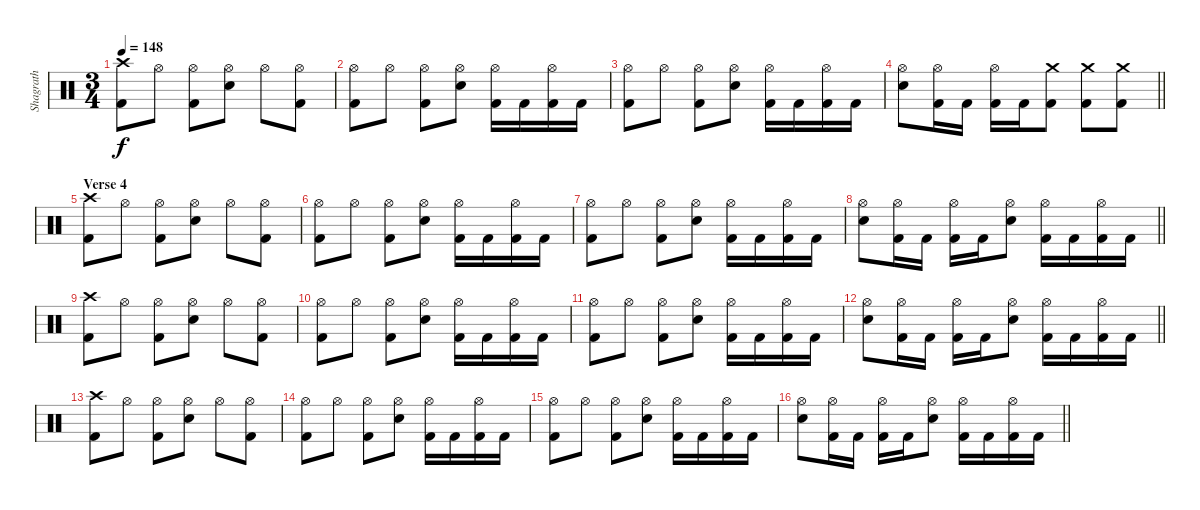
\track ("Shagrath" "Shagrath") {instrument percussion}
\staff {score}
\articulation defaults
\ts (3 4)
\tempo 148
\clef neutral
\ks c
("Crash high (hit)" "Kick (hit) 2").8{dy f} "Hi-Hat (open)".8 ("Hi-Hat (open)" "Kick (hit) 2").8 ("Hi-Hat (open)" "Electric Snare (hit)").8 "Hi-Hat (open)".8 ("Hi-Hat (open)" "Kick (hit) 2").8 |
("Hi-Hat (open)" "Kick (hit) 2").8 "Hi-Hat (open)".8 ("Hi-Hat (open)" "Kick (hit) 2").8 ("Hi-Hat (open)" "Electric Snare (hit)").8 ("Hi-Hat (open)" "Kick (hit) 2").16 "Kick (hit) 2".16 ("Hi-Hat (open)" "Kick (hit) 2").16 "Kick (hit) 2".16 |
("Hi-Hat (open)" "Kick (hit) 2").8 "Hi-Hat (open)".8 ("Hi-Hat (open)" "Kick (hit) 2").8 ("Hi-Hat (open)" "Electric Snare (hit)").8 ("Hi-Hat (open)" "Kick (hit) 2").16 "Kick (hit) 2".16 ("Hi-Hat (open)" "Kick (hit) 2").16 "Kick (hit) 2".16 |
\barLineRight lightlight
("Hi-Hat (open)" "Electric Snare (hit)").8 ("Hi-Hat (open)" "Kick (hit) 2").16 "Kick (hit) 2".16 ("Hi-Hat (open)" "Kick (hit) 2").16 "Kick (hit) 2".16 ("Crash medium (hit)" "Kick (hit) 2").8 ("Crash medium (hit)" "Kick (hit) 2").8 ("Crash medium (hit)" "Kick (hit) 2").8 |
\section ("" "Verse 4")
("Crash high (hit)" "Kick (hit) 2").8 "Hi-Hat (open)".8 ("Hi-Hat (open)" "Kick (hit) 2").8 ("Hi-Hat (open)" "Electric Snare (hit)").8 "Hi-Hat (open)".8 ("Hi-Hat (open)" "Kick (hit) 2").8 |
("Hi-Hat (open)" "Kick (hit) 2").8 "Hi-Hat (open)".8 ("Hi-Hat (open)" "Kick (hit) 2").8 ("Hi-Hat (open)" "Electric Snare (hit)").8 ("Hi-Hat (open)" "Kick (hit) 2").16 "Kick (hit) 2".16 ("Hi-Hat (open)" "Kick (hit) 2").16 "Kick (hit) 2".16 |
("Hi-Hat (open)" "Kick (hit) 2").8 "Hi-Hat (open)".8 ("Hi-Hat (open)" "Kick (hit) 2").8 ("Hi-Hat (open)" "Electric Snare (hit)").8 ("Hi-Hat (open)" "Kick (hit) 2").16 "Kick (hit) 2".16 ("Hi-Hat (open)" "Kick (hit) 2").16 "Kick (hit) 2".16 |
\barLineRight lightlight
("Hi-Hat (open)" "Electric Snare (hit)").8 ("Hi-Hat (open)" "Kick (hit) 2").16 "Kick (hit) 2".16 ("Hi-Hat (open)" "Kick (hit) 2").16 "Kick (hit) 2".16 ("Hi-Hat (open)" "Electric Snare (hit)").8 ("Hi-Hat (open)" "Kick (hit) 2").16 "Kick (hit) 2".16 ("Hi-Hat (open)" "Kick (hit) 2").16 "Kick (hit) 2".16 |
("Crash high (hit)" "Kick (hit) 2").8 "Hi-Hat (open)".8 ("Hi-Hat (open)" "Kick (hit) 2").8 ("Hi-Hat (open)" "Electric Snare (hit)").8 "Hi-Hat (open)".8 ("Hi-Hat (open)" "Kick (hit) 2").8 |
("Hi-Hat (open)" "Kick (hit) 2").8 "Hi-Hat (open)".8 ("Hi-Hat (open)" "Kick (hit) 2").8 ("Hi-Hat (open)" "Electric Snare (hit)").8 ("Hi-Hat (open)" "Kick (hit) 2").16 "Kick (hit) 2".16 ("Hi-Hat (open)" "Kick (hit) 2").16 "Kick (hit) 2".16 |
("Hi-Hat (open)" "Kick (hit) 2").8 "Hi-Hat (open)".8 ("Hi-Hat (open)" "Kick (hit) 2").8 ("Hi-Hat (open)" "Electric Snare (hit)").8 ("Hi-Hat (open)" "Kick (hit) 2").16 "Kick (hit) 2".16 ("Hi-Hat (open)" "Kick (hit) 2").16 "Kick (hit) 2".16 |
\barLineRight lightlight
("Hi-Hat (open)" "Electric Snare (hit)").8 ("Hi-Hat (open)" "Kick (hit) 2").16 "Kick (hit) 2".16 ("Hi-Hat (open)" "Kick (hit) 2").16 "Kick (hit) 2".16 ("Hi-Hat (open)" "Electric Snare (hit)").8 ("Hi-Hat (open)" "Kick (hit) 2").16 "Kick (hit) 2".16 ("Hi-Hat (open)" "Kick (hit) 2").16 "Kick (hit) 2".16 |
("Crash high (hit)" "Kick (hit) 2").8 "Hi-Hat (open)".8 ("Hi-Hat (open)" "Kick (hit) 2").8 ("Hi-Hat (open)" "Electric Snare (hit)").8 "Hi-Hat (open)".8 ("Hi-Hat (open)" "Kick (hit) 2").8 |
("Hi-Hat (open)" "Kick (hit) 2").8 "Hi-Hat (open)".8 ("Hi-Hat (open)" "Kick (hit) 2").8 ("Hi-Hat (open)" "Electric Snare (hit)").8 ("Hi-Hat (open)" "Kick (hit) 2").16 "Kick (hit) 2".16 ("Hi-Hat (open)" "Kick (hit) 2").16 "Kick (hit) 2".16 |
("Hi-Hat (open)" "Kick (hit) 2").8 "Hi-Hat (open)".8 ("Hi-Hat (open)" "Kick (hit) 2").8 ("Hi-Hat (open)" "Electric Snare (hit)").8 ("Hi-Hat (open)" "Kick (hit) 2").16 "Kick (hit) 2".16 ("Hi-Hat (open)" "Kick (hit) 2").16 "Kick (hit) 2".16 |
\barLineRight lightlight
("Hi-Hat (open)" "Electric Snare (hit)").8 ("Hi-Hat (open)" "Kick (hit) 2").16 "Kick (hit) 2".16 ("Hi-Hat (open)" "Kick (hit) 2").16 "Kick (hit) 2".16 ("Hi-Hat (open)" "Electric Snare (hit)").8 ("Hi-Hat (open)" "Kick (hit) 2").16 "Kick (hit) 2".16 ("Hi-Hat (open)" "Kick (hit) 2").16 "Kick (hit) 2".16
